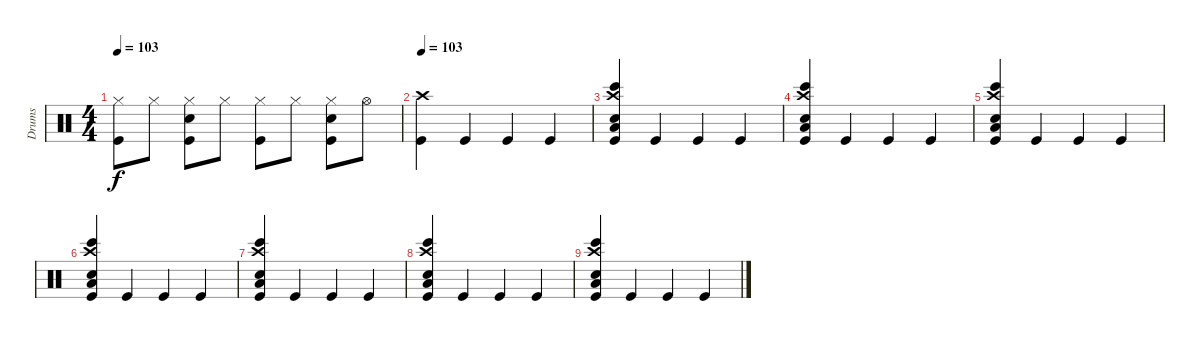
\track ("Drums" "Drums") {instrument percussion}
\staff {score}
\articulation defaults
\ts (4 4)
\tempo 103
\clef neutral
\ks c
("Hi-Hat (closed)" "Kick (hit)").8{dy f} "Hi-Hat (closed)".8 ("Hi-Hat (closed)" "Kick (hit)" "Snare (hit) 2").8 "Hi-Hat (closed)".8 ("Hi-Hat (closed)" "Kick (hit)").8 "Hi-Hat (closed)".8 ("Hi-Hat (closed)" "Kick (hit)" "Snare (hit) 2").8 "Hi-Hat (open)".8 |
\tempo 103
("Kick (hit)" "Crash high (hit)").4 "Kick (hit)".4 "Kick (hit)".4 "Kick (hit)".4 |
("Kick (hit)" "Snare (hit) 2" "Bongo High (hit)" "Low Floor Tom (hit)" "Crash high (hit)").4 "Kick (hit)".4 "Kick (hit)".4 "Kick (hit)".4 |
("Kick (hit)" "Snare (hit) 2" "Bongo High (hit)" "Low Floor Tom (hit)" "Crash high (hit)").4 "Kick (hit)".4 "Kick (hit)".4 "Kick (hit)".4 |
("Kick (hit)" "Snare (hit) 2" "Bongo High (hit)" "Low Floor Tom (hit)" "Crash high (hit)").4 "Kick (hit)".4 "Kick (hit)".4 "Kick (hit)".4 |
("Kick (hit)" "Snare (hit) 2" "Bongo High (hit)" "Low Floor Tom (hit)" "Crash high (hit)").4 "Kick (hit)".4 "Kick (hit)".4 "Kick (hit)".4 |
("Kick (hit)" "Snare (hit) 2" "Bongo High (hit)" "Low Floor Tom (hit)" "Crash high (hit)").4 "Kick (hit)".4 "Kick (hit)".4 "Kick (hit)".4 |
("Kick (hit)" "Snare (hit) 2" "Bongo High (hit)" "Low Floor Tom (hit)" "Crash high (hit)").4 "Kick (hit)".4 "Kick (hit)".4 "Kick (hit)".4 |
("Kick (hit)" "Snare (hit) 2" "Bongo High (hit)" "Low Floor Tom (hit)" "Crash high (hit)").4 "Kick (hit)".4 "Kick (hit)".4 "Kick (hit)".4
